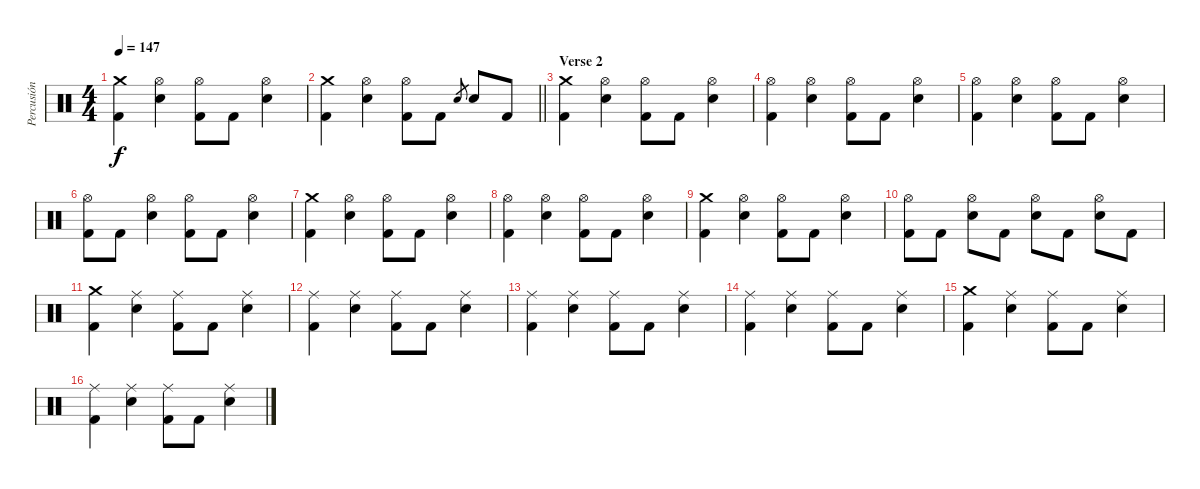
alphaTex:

\track ("Percusión" "Percusión") {instrument percussion}
\staff {score}
\articulation defaults
\ts (4 4)
\tempo 147
\clef neutral
\ks c
("Crash medium (hit)" "Kick (hit) 2").4{dy f} ("Hi-Hat (open)" "Snare (hit) 2").4 ("Hi-Hat (open)" "Kick (hit) 2").8 "Kick (hit) 2".8 ("Hi-Hat (open)" "Snare (hit) 2").4 |
\barLineRight lightlight
("Crash medium (hit)" "Kick (hit) 2").4 ("Hi-Hat (open)" "Snare (hit) 2").4 ("Hi-Hat (open)" "Kick (hit) 2").8 "Kick (hit) 2".8 "Snare (hit) 2".8{gr} "Snare (hit) 2".8 "Kick (hit) 2".8 |
\section ("" "Verse 2")
("Crash medium (hit)" "Kick (hit) 2").4 ("Hi-Hat (open)" "Snare (hit) 2").4 ("Hi-Hat (open)" "Kick (hit) 2").8 "Kick (hit) 2".8 ("Hi-Hat (open)" "Snare (hit) 2").4 |
("Hi-Hat (open)" "Kick (hit) 2").4 ("Hi-Hat (open)" "Snare (hit) 2").4 ("Hi-Hat (open)" "Kick (hit) 2").8 "Kick (hit) 2".8 ("Hi-Hat (open)" "Snare (hit) 2").4 |
("Hi-Hat (open)" "Kick (hit) 2").4 ("Hi-Hat (open)" "Snare (hit) 2").4 ("Hi-Hat (open)" "Kick (hit) 2").8 "Kick (hit) 2".8 ("Hi-Hat (open)" "Snare (hit) 2").4 |
("Hi-Hat (open)" "Kick (hit) 2").8 "Kick (hit) 2".8 ("Hi-Hat (open)" "Snare (hit) 2").4 ("Hi-Hat (open)" "Kick (hit) 2").8 "Kick (hit) 2".8 ("Hi-Hat (open)" "Snare (hit) 2").4 |
("Crash medium (hit)" "Kick (hit) 2").4 ("Hi-Hat (open)" "Snare (hit) 2").4 ("Hi-Hat (open)" "Kick (hit) 2").8 "Kick (hit) 2".8 ("Hi-Hat (open)" "Snare (hit) 2").4 |
("Hi-Hat (open)" "Kick (hit) 2").4 ("Hi-Hat (open)" "Snare (hit) 2").4 ("Hi-Hat (open)" "Kick (hit) 2").8 "Kick (hit) 2".8 ("Hi-Hat (open)" "Snare (hit) 2").4 |
("Crash medium (hit)" "Kick (hit) 2").4 ("Hi-Hat (open)" "Snare (hit) 2").4 ("Hi-Hat (open)" "Kick (hit) 2").8 "Kick (hit) 2".8 ("Hi-Hat (open)" "Snare (hit) 2").4 |
("Hi-Hat (open)" "Kick (hit) 2").8 "Kick (hit) 2".8 ("Hi-Hat (open)" "Snare (hit) 2").8 "Kick (hit) 2".8 ("Hi-Hat (open)" "Snare (hit) 2").8 "Kick (hit) 2".8 ("Hi-Hat (open)" "Snare (hit) 2").8 "Kick (hit) 2".8 |
("Crash medium (hit)" "Kick (hit) 2").4 ("Ride (middle)" "Snare (hit) 2").4 ("Ride (middle)" "Kick (hit) 2").8 "Kick (hit) 2".8 ("Ride (middle)" "Snare (hit) 2").4 |
("Ride (middle)" "Kick (hit) 2").4 ("Ride (middle)" "Snare (hit) 2").4 ("Ride (middle)" "Kick (hit) 2").8 "Kick (hit) 2".8 ("Ride (middle)" "Snare (hit) 2").4 |
("Ride (middle)" "Kick (hit) 2").4 ("Ride (middle)" "Snare (hit) 2").4 ("Ride (middle)" "Kick (hit) 2").8 "Kick (hit) 2".8 ("Ride (middle)" "Snare (hit) 2").4 |
("Ride (middle)" "Kick (hit) 2").4 ("Ride (middle)" "Snare (hit) 2").4 ("Ride (middle)" "Kick (hit) 2").8 "Kick (hit) 2".8 ("Ride (middle)" "Snare (hit) 2").4 |
("Crash medium (hit)" "Kick (hit) 2").4 ("Ride (middle)" "Snare (hit) 2").4 ("Ride (middle)" "Kick (hit) 2").8 "Kick (hit) 2".8 ("Ride (middle)" "Snare (hit) 2").4 |
("Ride (middle)" "Kick (hit) 2").4 ("Ride (middle)" "Snare (hit) 2").4 ("Ride (middle)" "Kick (hit) 2").8 "Kick (hit) 2".8 ("Ride (middle)" "Snare (hit) 2").4
